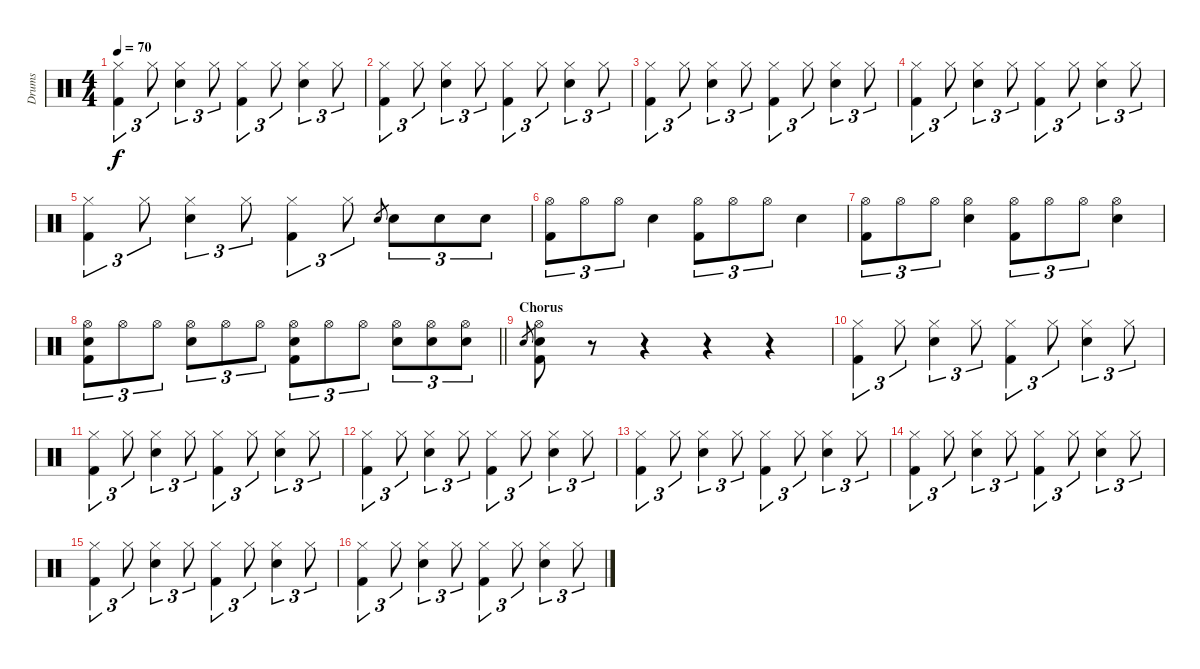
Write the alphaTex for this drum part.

\track ("Drums" "Drums") {instrument percussion}
\staff {score}
\articulation defaults
\ts (4 4)
\tempo 70
\clef neutral
\ks c
("Hi-Hat (closed)" "Kick (hit) 2").4{tu (3 2) dy f} "Hi-Hat (closed)".8{tu (3 2)} ("Hi-Hat (closed)" "Snare (hit) 2").4{tu (3 2)} "Hi-Hat (closed)".8{tu (3 2)} ("Hi-Hat (closed)" "Kick (hit) 2").4{tu (3 2)} "Hi-Hat (closed)".8{tu (3 2)} ("Hi-Hat (closed)" "Snare (hit) 2").4{tu (3 2)} "Hi-Hat (closed)".8{tu (3 2)} |
("Hi-Hat (closed)" "Kick (hit) 2").4{tu (3 2)} "Hi-Hat (closed)".8{tu (3 2)} ("Hi-Hat (closed)" "Snare (hit) 2").4{tu (3 2)} "Hi-Hat (closed)".8{tu (3 2)} ("Hi-Hat (closed)" "Kick (hit) 2").4{tu (3 2)} "Hi-Hat (closed)".8{tu (3 2)} ("Hi-Hat (closed)" "Snare (hit) 2").4{tu (3 2)} "Hi-Hat (closed)".8{tu (3 2)} |
("Hi-Hat (closed)" "Kick (hit) 2").4{tu (3 2)} "Hi-Hat (closed)".8{tu (3 2)} ("Hi-Hat (closed)" "Snare (hit) 2").4{tu (3 2)} "Hi-Hat (closed)".8{tu (3 2)} ("Hi-Hat (closed)" "Kick (hit) 2").4{tu (3 2)} "Hi-Hat (closed)".8{tu (3 2)} ("Hi-Hat (closed)" "Snare (hit) 2").4{tu (3 2)} "Hi-Hat (closed)".8{tu (3 2)} |
("Hi-Hat (closed)" "Kick (hit) 2").4{tu (3 2)} "Hi-Hat (closed)".8{tu (3 2)} ("Hi-Hat (closed)" "Snare (hit) 2").4{tu (3 2)} "Hi-Hat (closed)".8{tu (3 2)} ("Hi-Hat (closed)" "Kick (hit) 2").4{tu (3 2)} "Hi-Hat (closed)".8{tu (3 2)} ("Hi-Hat (closed)" "Snare (hit) 2").4{tu (3 2)} "Hi-Hat (closed)".8{tu (3 2)} |
("Hi-Hat (closed)" "Kick (hit) 2").4{tu (3 2)} "Hi-Hat (closed)".8{tu (3 2)} ("Hi-Hat (closed)" "Snare (hit) 2").4{tu (3 2)} "Hi-Hat (closed)".8{tu (3 2)} ("Hi-Hat (closed)" "Kick (hit) 2").4{tu (3 2)} "Hi-Hat (closed)".8{tu (3 2)} "Snare (hit) 2".8{gr} "Snare (hit) 2".8{tu (3 2)} "Snare (hit) 2".8{tu (3 2)} "Snare (hit) 2".8{tu (3 2)} |
("Hi-Hat (open)" "Kick (hit) 2").8{tu (3 2)} "Hi-Hat (open)".8{tu (3 2)} "Hi-Hat (open)".8{tu (3 2)} "Snare (hit) 2".4 ("Hi-Hat (open)" "Kick (hit) 2").8{tu (3 2)} "Hi-Hat (open)".8{tu (3 2)} "Hi-Hat (open)".8{tu (3 2)} "Snare (hit) 2".4 |
("Hi-Hat (open)" "Kick (hit) 2").8{tu (3 2)} "Hi-Hat (open)".8{tu (3 2)} "Hi-Hat (open)".8{tu (3 2)} ("Hi-Hat (open)" "Snare (hit) 2").4 ("Hi-Hat (open)" "Kick (hit) 2").8{tu (3 2)} "Hi-Hat (open)".8{tu (3 2)} "Hi-Hat (open)".8{tu (3 2)} ("Hi-Hat (open)" "Snare (hit) 2").4 |
\barLineRight lightlight
("Hi-Hat (open)" "Snare (hit) 2" "Kick (hit) 2").8{tu (3 2)} "Hi-Hat (open)".8{tu (3 2)} "Hi-Hat (open)".8{tu (3 2)} ("Hi-Hat (open)" "Snare (hit) 2").8{tu (3 2)} "Hi-Hat (open)".8{tu (3 2)} "Hi-Hat (open)".8{tu (3 2)} ("Hi-Hat (open)" "Snare (hit) 2" "Kick (hit) 2").8{tu (3 2)} "Hi-Hat (open)".8{tu (3 2)} "Hi-Hat (open)".8{tu (3 2)} ("Hi-Hat (open)" "Snare (hit) 2").8{tu (3 2)} ("Hi-Hat (open)" "Snare (hit) 2").8{tu (3 2)} ("Hi-Hat (open)" "Snare (hit) 2").8{tu (3 2)} |
\section ("" "Chorus")
"Snare (hit) 2".8{gr} ("Hi-Hat (open)" "Snare (hit) 2" "Kick (hit) 2").8 r.8 r.4 r.4 r.4 |
("Hi-Hat (closed)" "Kick (hit) 2").4{tu (3 2)} "Hi-Hat (closed)".8{tu (3 2)} ("Hi-Hat (closed)" "Snare (hit) 2").4{tu (3 2)} "Hi-Hat (closed)".8{tu (3 2)} ("Hi-Hat (closed)" "Kick (hit) 2").4{tu (3 2)} "Hi-Hat (closed)".8{tu (3 2)} ("Hi-Hat (closed)" "Snare (hit) 2").4{tu (3 2)} "Hi-Hat (closed)".8{tu (3 2)} |
("Hi-Hat (closed)" "Kick (hit) 2").4{tu (3 2)} "Hi-Hat (closed)".8{tu (3 2)} ("Hi-Hat (closed)" "Snare (hit) 2").4{tu (3 2)} "Hi-Hat (closed)".8{tu (3 2)} ("Hi-Hat (closed)" "Kick (hit) 2").4{tu (3 2)} "Hi-Hat (closed)".8{tu (3 2)} ("Hi-Hat (closed)" "Snare (hit) 2").4{tu (3 2)} "Hi-Hat (closed)".8{tu (3 2)} |
("Hi-Hat (closed)" "Kick (hit) 2").4{tu (3 2)} "Hi-Hat (closed)".8{tu (3 2)} ("Hi-Hat (closed)" "Snare (hit) 2").4{tu (3 2)} "Hi-Hat (closed)".8{tu (3 2)} ("Hi-Hat (closed)" "Kick (hit) 2").4{tu (3 2)} "Hi-Hat (closed)".8{tu (3 2)} ("Hi-Hat (closed)" "Snare (hit) 2").4{tu (3 2)} "Hi-Hat (closed)".8{tu (3 2)} |
("Hi-Hat (closed)" "Kick (hit) 2").4{tu (3 2)} "Hi-Hat (closed)".8{tu (3 2)} ("Hi-Hat (closed)" "Snare (hit) 2").4{tu (3 2)} "Hi-Hat (closed)".8{tu (3 2)} ("Hi-Hat (closed)" "Kick (hit) 2").4{tu (3 2)} "Hi-Hat (closed)".8{tu (3 2)} ("Hi-Hat (closed)" "Snare (hit) 2").4{tu (3 2)} "Hi-Hat (closed)".8{tu (3 2)} |
("Hi-Hat (closed)" "Kick (hit) 2").4{tu (3 2)} "Hi-Hat (closed)".8{tu (3 2)} ("Hi-Hat (closed)" "Snare (hit) 2").4{tu (3 2)} "Hi-Hat (closed)".8{tu (3 2)} ("Hi-Hat (closed)" "Kick (hit) 2").4{tu (3 2)} "Hi-Hat (closed)".8{tu (3 2)} ("Hi-Hat (closed)" "Snare (hit) 2").4{tu (3 2)} "Hi-Hat (closed)".8{tu (3 2)} |
("Hi-Hat (closed)" "Kick (hit) 2").4{tu (3 2)} "Hi-Hat (closed)".8{tu (3 2)} ("Hi-Hat (closed)" "Snare (hit) 2").4{tu (3 2)} "Hi-Hat (closed)".8{tu (3 2)} ("Hi-Hat (closed)" "Kick (hit) 2").4{tu (3 2)} "Hi-Hat (closed)".8{tu (3 2)} ("Hi-Hat (closed)" "Snare (hit) 2").4{tu (3 2)} "Hi-Hat (closed)".8{tu (3 2)} |
("Hi-Hat (closed)" "Kick (hit) 2").4{tu (3 2)} "Hi-Hat (closed)".8{tu (3 2)} ("Hi-Hat (closed)" "Snare (hit) 2").4{tu (3 2)} "Hi-Hat (closed)".8{tu (3 2)} ("Hi-Hat (closed)" "Kick (hit) 2").4{tu (3 2)} "Hi-Hat (closed)".8{tu (3 2)} ("Hi-Hat (closed)" "Snare (hit) 2").4{tu (3 2)} "Hi-Hat (closed)".8{tu (3 2)}
